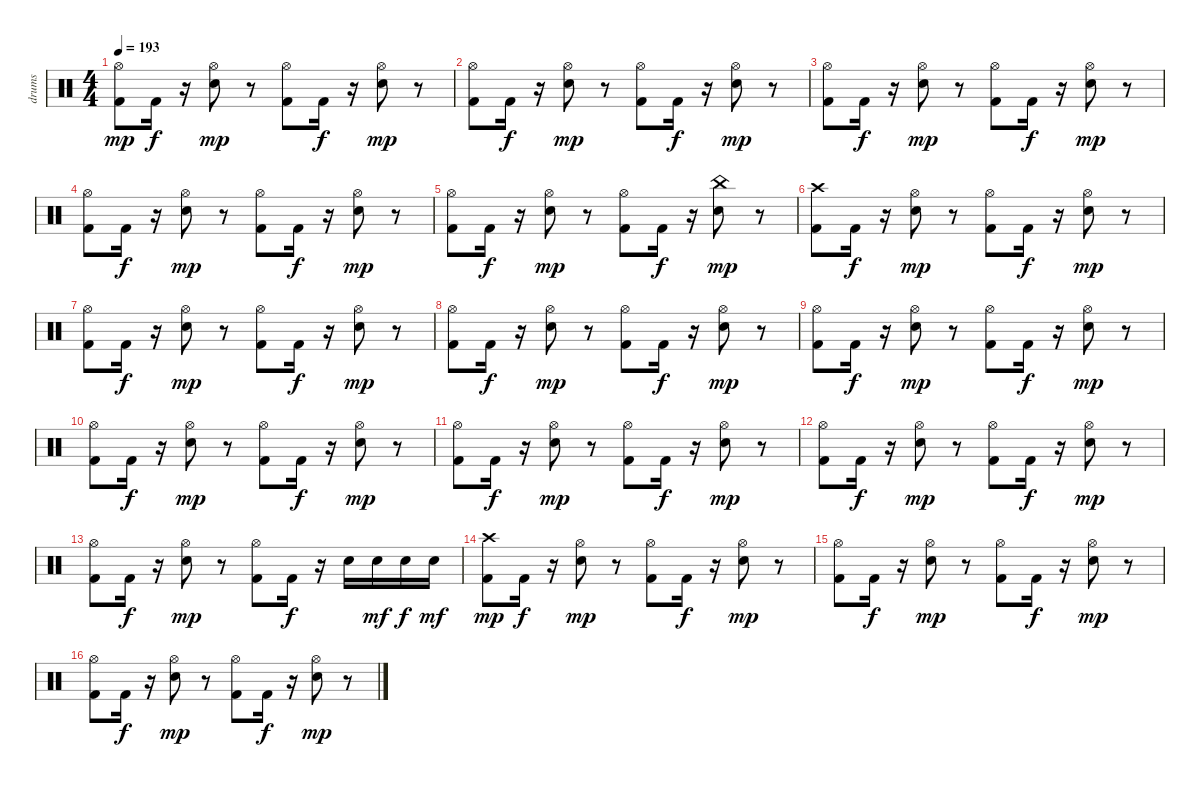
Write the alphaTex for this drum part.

\track ("drums" "drums") {instrument percussion}
\staff {score}
\articulation defaults
\ts (4 4)
\tempo 193
\clef neutral
\ks c
("Kick (hit) 2" "Hi-Hat (open)").8{dy mp} "Kick (hit) 2".16{dy f} r.16 ("Snare (hit) 2" "Hi-Hat (open)").8{dy mp} r.8 ("Kick (hit) 2" "Hi-Hat (open)").8 "Kick (hit) 2".16{dy f} r.16 ("Snare (hit) 2" "Hi-Hat (open)").8{dy mp} r.8 |
("Kick (hit) 2" "Hi-Hat (open)").8 "Kick (hit) 2".16{dy f} r.16 ("Snare (hit) 2" "Hi-Hat (open)").8{dy mp} r.8 ("Kick (hit) 2" "Hi-Hat (open)").8 "Kick (hit) 2".16{dy f} r.16 ("Snare (hit) 2" "Hi-Hat (open)").8{dy mp} r.8 |
("Kick (hit) 2" "Hi-Hat (open)").8 "Kick (hit) 2".16{dy f} r.16 ("Snare (hit) 2" "Hi-Hat (open)").8{dy mp} r.8 ("Kick (hit) 2" "Hi-Hat (open)").8 "Kick (hit) 2".16{dy f} r.16 ("Snare (hit) 2" "Hi-Hat (open)").8{dy mp} r.8 |
("Kick (hit) 2" "Hi-Hat (open)").8 "Kick (hit) 2".16{dy f} r.16 ("Snare (hit) 2" "Hi-Hat (open)").8{dy mp} r.8 ("Kick (hit) 2" "Hi-Hat (open)").8 "Kick (hit) 2".16{dy f} r.16 ("Snare (hit) 2" "Hi-Hat (open)").8{dy mp} r.8 |
("Kick (hit) 2" "Hi-Hat (open)").8 "Kick (hit) 2".16{dy f} r.16 ("Snare (hit) 2" "Hi-Hat (open)").8{dy mp} r.8 ("Kick (hit) 2" "Hi-Hat (open)").8 "Kick (hit) 2".16{dy f} r.16 ("Snare (hit) 2" "China (hit)").8{dy mp} r.8 |
("Kick (hit) 2" "Crash high (hit)").8 "Kick (hit) 2".16{dy f} r.16 ("Snare (hit) 2" "Hi-Hat (open)").8{dy mp} r.8 ("Kick (hit) 2" "Hi-Hat (open)").8 "Kick (hit) 2".16{dy f} r.16 ("Snare (hit) 2" "Hi-Hat (open)").8{dy mp} r.8 |
("Kick (hit) 2" "Hi-Hat (open)").8 "Kick (hit) 2".16{dy f} r.16 ("Snare (hit) 2" "Hi-Hat (open)").8{dy mp} r.8 ("Kick (hit) 2" "Hi-Hat (open)").8 "Kick (hit) 2".16{dy f} r.16 ("Snare (hit) 2" "Hi-Hat (open)").8{dy mp} r.8 |
("Kick (hit) 2" "Hi-Hat (open)").8 "Kick (hit) 2".16{dy f} r.16 ("Snare (hit) 2" "Hi-Hat (open)").8{dy mp} r.8 ("Kick (hit) 2" "Hi-Hat (open)").8 "Kick (hit) 2".16{dy f} r.16 ("Snare (hit) 2" "Hi-Hat (open)").8{dy mp} r.8 |
("Kick (hit) 2" "Hi-Hat (open)").8 "Kick (hit) 2".16{dy f} r.16 ("Snare (hit) 2" "Hi-Hat (open)").8{dy mp} r.8 ("Kick (hit) 2" "Hi-Hat (open)").8 "Kick (hit) 2".16{dy f} r.16 ("Snare (hit) 2" "Hi-Hat (open)").8{dy mp} r.8 |
("Kick (hit) 2" "Hi-Hat (open)").8 "Kick (hit) 2".16{dy f} r.16 ("Snare (hit) 2" "Hi-Hat (open)").8{dy mp} r.8 ("Kick (hit) 2" "Hi-Hat (open)").8 "Kick (hit) 2".16{dy f} r.16 ("Snare (hit) 2" "Hi-Hat (open)").8{dy mp} r.8 |
("Kick (hit) 2" "Hi-Hat (open)").8 "Kick (hit) 2".16{dy f} r.16 ("Snare (hit) 2" "Hi-Hat (open)").8{dy mp} r.8 ("Kick (hit) 2" "Hi-Hat (open)").8 "Kick (hit) 2".16{dy f} r.16 ("Snare (hit) 2" "Hi-Hat (open)").8{dy mp} r.8 |
("Kick (hit) 2" "Hi-Hat (open)").8 "Kick (hit) 2".16{dy f} r.16 ("Snare (hit) 2" "Hi-Hat (open)").8{dy mp} r.8 ("Kick (hit) 2" "Hi-Hat (open)").8 "Kick (hit) 2".16{dy f} r.16 ("Snare (hit) 2" "Hi-Hat (open)").8{dy mp} r.8 |
("Kick (hit) 2" "Hi-Hat (open)").8 "Kick (hit) 2".16{dy f} r.16 ("Snare (hit) 2" "Hi-Hat (open)").8{dy mp} r.8 ("Kick (hit) 2" "Hi-Hat (open)").8 "Kick (hit) 2".16{dy f} r.16 "Snare (hit) 2".16 "Snare (hit) 2".16{dy mf} "Snare (hit) 2".16{dy f} "Snare (hit) 2".16{dy mf} |
("Kick (hit) 2" "Crash high (hit)").8{dy mp} "Kick (hit) 2".16{dy f} r.16 ("Snare (hit) 2" "Hi-Hat (open)").8{dy mp} r.8 ("Kick (hit) 2" "Hi-Hat (open)").8 "Kick (hit) 2".16{dy f} r.16 ("Snare (hit) 2" "Hi-Hat (open)").8{dy mp} r.8 |
("Kick (hit) 2" "Hi-Hat (open)").8 "Kick (hit) 2".16{dy f} r.16 ("Snare (hit) 2" "Hi-Hat (open)").8{dy mp} r.8 ("Kick (hit) 2" "Hi-Hat (open)").8 "Kick (hit) 2".16{dy f} r.16 ("Snare (hit) 2" "Hi-Hat (open)").8{dy mp} r.8 |
("Kick (hit) 2" "Hi-Hat (open)").8 "Kick (hit) 2".16{dy f} r.16 ("Snare (hit) 2" "Hi-Hat (open)").8{dy mp} r.8 ("Kick (hit) 2" "Hi-Hat (open)").8 "Kick (hit) 2".16{dy f} r.16 ("Snare (hit) 2" "Hi-Hat (open)").8{dy mp} r.8
